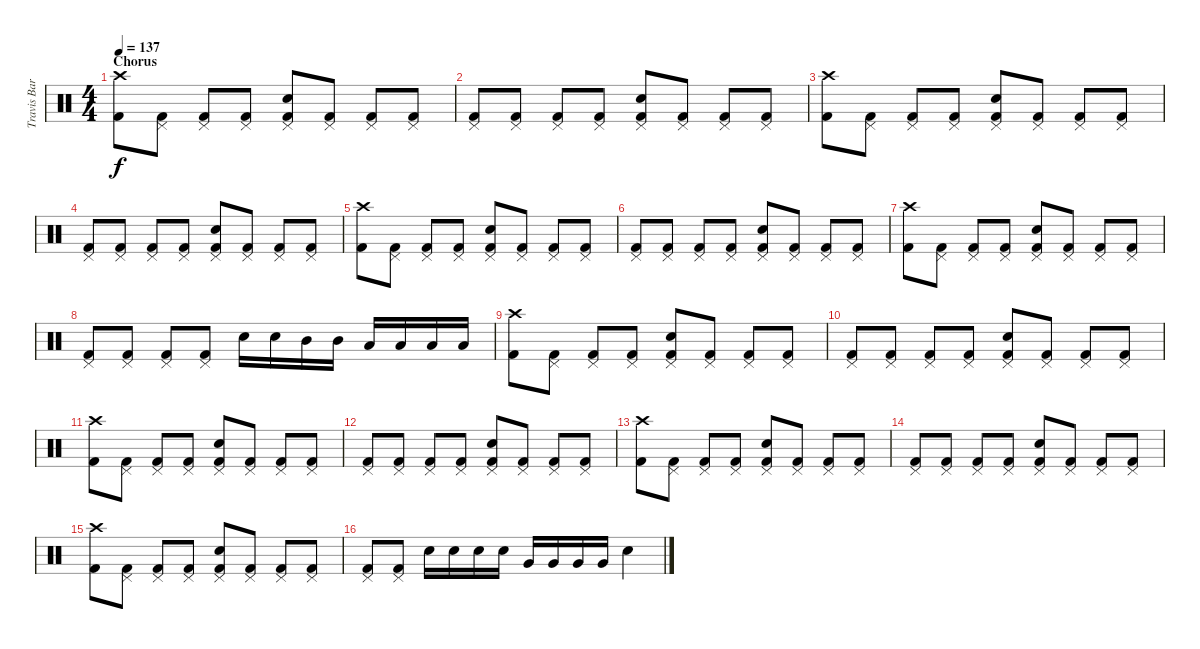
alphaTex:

\track ("Travis Barker" "Travis Bar") {instrument percussion}
\staff {score}
\articulation defaults
\ts (4 4)
\section ("" "Chorus")
\tempo 137
\clef neutral
\ks c
("Crash high (hit)" "Kick (hit) 2").8{dy f} ("Pedal Hi-Hat (hit)" "Kick (hit) 2").8 ("Pedal Hi-Hat (hit)" "Kick (hit) 2").8 ("Pedal Hi-Hat (hit)" "Kick (hit) 2").8 ("Pedal Hi-Hat (hit)" "Snare (hit) 2" "Kick (hit) 2").8 ("Pedal Hi-Hat (hit)" "Kick (hit) 2").8 ("Pedal Hi-Hat (hit)" "Kick (hit) 2").8 ("Pedal Hi-Hat (hit)" "Kick (hit) 2").8 |
("Pedal Hi-Hat (hit)" "Kick (hit) 2").8 ("Pedal Hi-Hat (hit)" "Kick (hit) 2").8 ("Pedal Hi-Hat (hit)" "Kick (hit) 2").8 ("Pedal Hi-Hat (hit)" "Kick (hit) 2").8 ("Pedal Hi-Hat (hit)" "Snare (hit) 2" "Kick (hit) 2").8 ("Pedal Hi-Hat (hit)" "Kick (hit) 2").8 ("Pedal Hi-Hat (hit)" "Kick (hit) 2").8 ("Pedal Hi-Hat (hit)" "Kick (hit) 2").8 |
("Crash high (hit)" "Kick (hit) 2").8 ("Pedal Hi-Hat (hit)" "Kick (hit) 2").8 ("Pedal Hi-Hat (hit)" "Kick (hit) 2").8 ("Pedal Hi-Hat (hit)" "Kick (hit) 2").8 ("Pedal Hi-Hat (hit)" "Snare (hit) 2" "Kick (hit) 2").8 ("Pedal Hi-Hat (hit)" "Kick (hit) 2").8 ("Pedal Hi-Hat (hit)" "Kick (hit) 2").8 ("Pedal Hi-Hat (hit)" "Kick (hit) 2").8 |
("Pedal Hi-Hat (hit)" "Kick (hit) 2").8 ("Pedal Hi-Hat (hit)" "Kick (hit) 2").8 ("Pedal Hi-Hat (hit)" "Kick (hit) 2").8 ("Pedal Hi-Hat (hit)" "Kick (hit) 2").8 ("Pedal Hi-Hat (hit)" "Snare (hit) 2" "Kick (hit) 2").8 ("Pedal Hi-Hat (hit)" "Kick (hit) 2").8 ("Pedal Hi-Hat (hit)" "Kick (hit) 2").8 ("Pedal Hi-Hat (hit)" "Kick (hit) 2").8 |
("Crash high (hit)" "Kick (hit) 2").8 ("Pedal Hi-Hat (hit)" "Kick (hit) 2").8 ("Pedal Hi-Hat (hit)" "Kick (hit) 2").8 ("Pedal Hi-Hat (hit)" "Kick (hit) 2").8 ("Pedal Hi-Hat (hit)" "Snare (hit) 2" "Kick (hit) 2").8 ("Pedal Hi-Hat (hit)" "Kick (hit) 2").8 ("Pedal Hi-Hat (hit)" "Kick (hit) 2").8 ("Pedal Hi-Hat (hit)" "Kick (hit) 2").8 |
("Pedal Hi-Hat (hit)" "Kick (hit) 2").8 ("Pedal Hi-Hat (hit)" "Kick (hit) 2").8 ("Pedal Hi-Hat (hit)" "Kick (hit) 2").8 ("Pedal Hi-Hat (hit)" "Kick (hit) 2").8 ("Pedal Hi-Hat (hit)" "Snare (hit) 2" "Kick (hit) 2").8 ("Pedal Hi-Hat (hit)" "Kick (hit) 2").8 ("Pedal Hi-Hat (hit)" "Kick (hit) 2").8 ("Pedal Hi-Hat (hit)" "Kick (hit) 2").8 |
("Crash high (hit)" "Kick (hit) 2").8 ("Pedal Hi-Hat (hit)" "Kick (hit) 2").8 ("Pedal Hi-Hat (hit)" "Kick (hit) 2").8 ("Pedal Hi-Hat (hit)" "Kick (hit) 2").8 ("Pedal Hi-Hat (hit)" "Snare (hit) 2" "Kick (hit) 2").8 ("Pedal Hi-Hat (hit)" "Kick (hit) 2").8 ("Pedal Hi-Hat (hit)" "Kick (hit) 2").8 ("Pedal Hi-Hat (hit)" "Kick (hit) 2").8 |
("Pedal Hi-Hat (hit)" "Kick (hit) 2").8 ("Pedal Hi-Hat (hit)" "Kick (hit) 2").8 ("Pedal Hi-Hat (hit)" "Kick (hit) 2").8 ("Pedal Hi-Hat (hit)" "Kick (hit) 2").8 "Snare (hit) 2".16 "Snare (hit) 2".16 "Mid Tom (hit)".16 "Mid Tom (hit)".16 "Low Tom (hit)".16 "Low Tom (hit)".16 "Low Tom (hit)".16 "Low Tom (hit)".16 |
("Crash high (hit)" "Kick (hit) 2").8 ("Pedal Hi-Hat (hit)" "Kick (hit) 2").8 ("Pedal Hi-Hat (hit)" "Kick (hit) 2").8 ("Pedal Hi-Hat (hit)" "Kick (hit) 2").8 ("Pedal Hi-Hat (hit)" "Snare (hit) 2" "Kick (hit) 2").8 ("Pedal Hi-Hat (hit)" "Kick (hit) 2").8 ("Pedal Hi-Hat (hit)" "Kick (hit) 2").8 ("Pedal Hi-Hat (hit)" "Kick (hit) 2").8 |
("Pedal Hi-Hat (hit)" "Kick (hit) 2").8 ("Pedal Hi-Hat (hit)" "Kick (hit) 2").8 ("Pedal Hi-Hat (hit)" "Kick (hit) 2").8 ("Pedal Hi-Hat (hit)" "Kick (hit) 2").8 ("Pedal Hi-Hat (hit)" "Snare (hit) 2" "Kick (hit) 2").8 ("Pedal Hi-Hat (hit)" "Kick (hit) 2").8 ("Pedal Hi-Hat (hit)" "Kick (hit) 2").8 ("Pedal Hi-Hat (hit)" "Kick (hit) 2").8 |
("Crash high (hit)" "Kick (hit) 2").8 ("Pedal Hi-Hat (hit)" "Kick (hit) 2").8 ("Pedal Hi-Hat (hit)" "Kick (hit) 2").8 ("Pedal Hi-Hat (hit)" "Kick (hit) 2").8 ("Pedal Hi-Hat (hit)" "Snare (hit) 2" "Kick (hit) 2").8 ("Pedal Hi-Hat (hit)" "Kick (hit) 2").8 ("Pedal Hi-Hat (hit)" "Kick (hit) 2").8 ("Pedal Hi-Hat (hit)" "Kick (hit) 2").8 |
("Pedal Hi-Hat (hit)" "Kick (hit) 2").8 ("Pedal Hi-Hat (hit)" "Kick (hit) 2").8 ("Pedal Hi-Hat (hit)" "Kick (hit) 2").8 ("Pedal Hi-Hat (hit)" "Kick (hit) 2").8 ("Pedal Hi-Hat (hit)" "Snare (hit) 2" "Kick (hit) 2").8 ("Pedal Hi-Hat (hit)" "Kick (hit) 2").8 ("Pedal Hi-Hat (hit)" "Kick (hit) 2").8 ("Pedal Hi-Hat (hit)" "Kick (hit) 2").8 |
("Crash high (hit)" "Kick (hit) 2").8 ("Pedal Hi-Hat (hit)" "Kick (hit) 2").8 ("Pedal Hi-Hat (hit)" "Kick (hit) 2").8 ("Pedal Hi-Hat (hit)" "Kick (hit) 2").8 ("Pedal Hi-Hat (hit)" "Snare (hit) 2" "Kick (hit) 2").8 ("Pedal Hi-Hat (hit)" "Kick (hit) 2").8 ("Pedal Hi-Hat (hit)" "Kick (hit) 2").8 ("Pedal Hi-Hat (hit)" "Kick (hit) 2").8 |
("Pedal Hi-Hat (hit)" "Kick (hit) 2").8 ("Pedal Hi-Hat (hit)" "Kick (hit) 2").8 ("Pedal Hi-Hat (hit)" "Kick (hit) 2").8 ("Pedal Hi-Hat (hit)" "Kick (hit) 2").8 ("Pedal Hi-Hat (hit)" "Snare (hit) 2" "Kick (hit) 2").8 ("Pedal Hi-Hat (hit)" "Kick (hit) 2").8 ("Pedal Hi-Hat (hit)" "Kick (hit) 2").8 ("Pedal Hi-Hat (hit)" "Kick (hit) 2").8 |
("Crash high (hit)" "Kick (hit) 2").8 ("Pedal Hi-Hat (hit)" "Kick (hit) 2").8 ("Pedal Hi-Hat (hit)" "Kick (hit) 2").8 ("Pedal Hi-Hat (hit)" "Kick (hit) 2").8 ("Pedal Hi-Hat (hit)" "Snare (hit) 2" "Kick (hit) 2").8 ("Pedal Hi-Hat (hit)" "Kick (hit) 2").8 ("Pedal Hi-Hat (hit)" "Kick (hit) 2").8 ("Pedal Hi-Hat (hit)" "Kick (hit) 2").8 |
("Pedal Hi-Hat (hit)" "Kick (hit) 2").8 ("Pedal Hi-Hat (hit)" "Kick (hit) 2").8 "Snare (hit) 2".16 "Snare (hit) 2".16 "Snare (hit) 2".16 "Snare (hit) 2".16 "Very Low Tom (hit)".16 "Very Low Tom (hit)".16 "Very Low Tom (hit)".16 "Very Low Tom (hit)".16 "Snare (hit) 2".4
